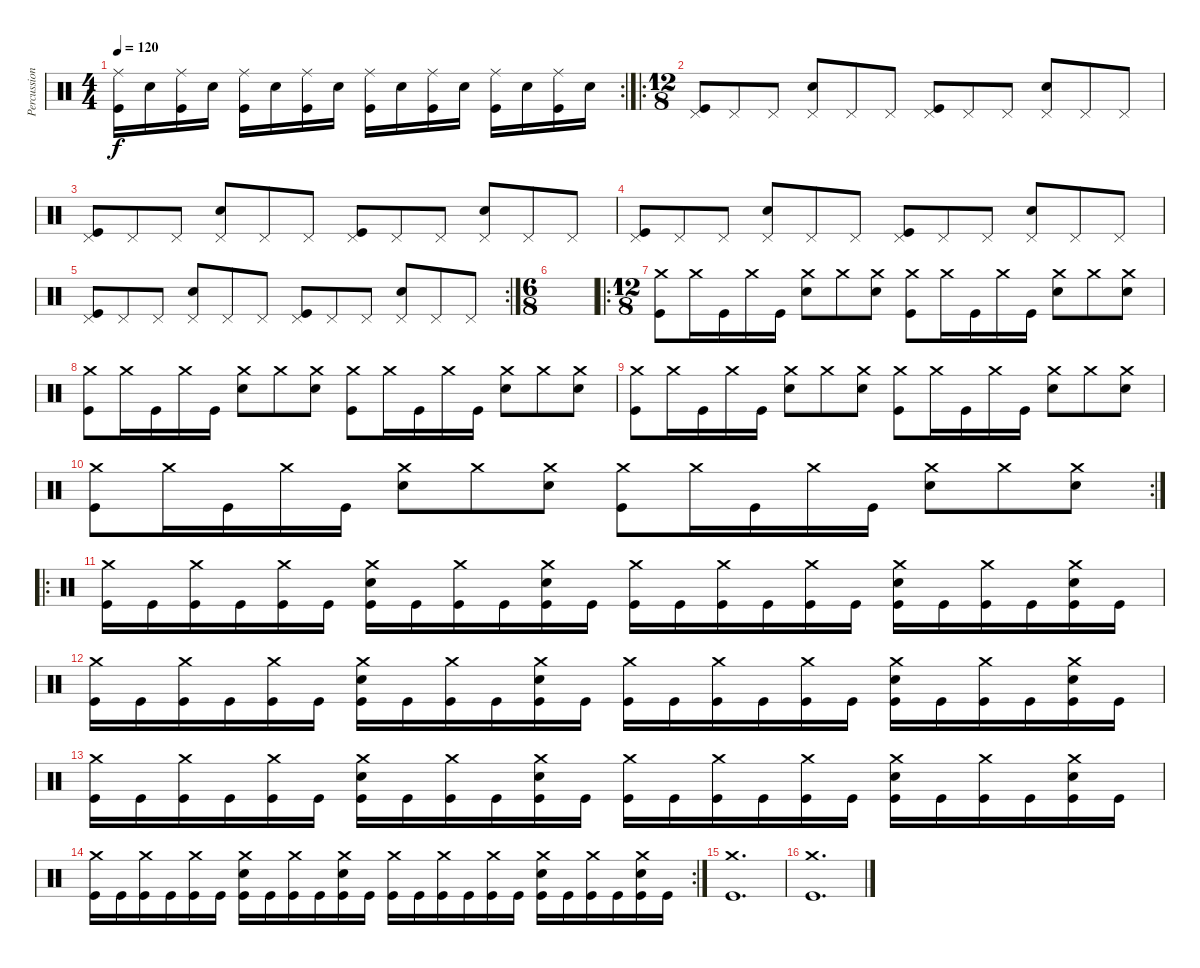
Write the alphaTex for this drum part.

\track ("Percussion" "Percussion") {instrument percussion}
\staff {score}
\articulation defaults
\rc 2
\ts (4 4)
\tempo 120
\clef neutral
\ks c
("Ride (middle)" "Kick (hit)").16{dy f} "Snare (hit) 2".16 ("Ride (middle)" "Kick (hit)").16 "Snare (hit) 2".16 ("Ride (middle)" "Kick (hit)").16 "Snare (hit) 2".16 ("Ride (middle)" "Kick (hit)").16 "Snare (hit) 2".16 ("Ride (middle)" "Kick (hit)").16 "Snare (hit) 2".16 ("Ride (middle)" "Kick (hit)").16 "Snare (hit) 2".16 ("Ride (middle)" "Kick (hit)").16 "Snare (hit) 2".16 ("Ride (middle)" "Kick (hit)").16 "Snare (hit) 2".16 |
\ro
\ts (12 8)
("Pedal Hi-Hat (hit)" "Kick (hit)").8 "Pedal Hi-Hat (hit)".8 "Pedal Hi-Hat (hit)".8 ("Pedal Hi-Hat (hit)" "Snare (hit) 2").8 "Pedal Hi-Hat (hit)".8 "Pedal Hi-Hat (hit)".8 ("Pedal Hi-Hat (hit)" "Kick (hit)").8 "Pedal Hi-Hat (hit)".8 "Pedal Hi-Hat (hit)".8 ("Pedal Hi-Hat (hit)" "Snare (hit) 2").8 "Pedal Hi-Hat (hit)".8 "Pedal Hi-Hat (hit)".8 |
("Pedal Hi-Hat (hit)" "Kick (hit)").8 "Pedal Hi-Hat (hit)".8 "Pedal Hi-Hat (hit)".8 ("Pedal Hi-Hat (hit)" "Snare (hit) 2").8 "Pedal Hi-Hat (hit)".8 "Pedal Hi-Hat (hit)".8 ("Pedal Hi-Hat (hit)" "Kick (hit)").8 "Pedal Hi-Hat (hit)".8 "Pedal Hi-Hat (hit)".8 ("Pedal Hi-Hat (hit)" "Snare (hit) 2").8 "Pedal Hi-Hat (hit)".8 "Pedal Hi-Hat (hit)".8 |
("Pedal Hi-Hat (hit)" "Kick (hit)").8 "Pedal Hi-Hat (hit)".8 "Pedal Hi-Hat (hit)".8 ("Pedal Hi-Hat (hit)" "Snare (hit) 2").8 "Pedal Hi-Hat (hit)".8 "Pedal Hi-Hat (hit)".8 ("Pedal Hi-Hat (hit)" "Kick (hit)").8 "Pedal Hi-Hat (hit)".8 "Pedal Hi-Hat (hit)".8 ("Pedal Hi-Hat (hit)" "Snare (hit) 2").8 "Pedal Hi-Hat (hit)".8 "Pedal Hi-Hat (hit)".8 |
\rc 2
("Pedal Hi-Hat (hit)" "Kick (hit)").8 "Pedal Hi-Hat (hit)".8 "Pedal Hi-Hat (hit)".8 ("Pedal Hi-Hat (hit)" "Snare (hit) 2").8 "Pedal Hi-Hat (hit)".8 "Pedal Hi-Hat (hit)".8 ("Pedal Hi-Hat (hit)" "Kick (hit)").8 "Pedal Hi-Hat (hit)".8 "Pedal Hi-Hat (hit)".8 ("Pedal Hi-Hat (hit)" "Snare (hit) 2").8 "Pedal Hi-Hat (hit)".8 "Pedal Hi-Hat (hit)".8 |
\ts (6 8)
|
\ro
\ts (12 8)
("Crash medium (hit)" "Kick (hit)").8 "Crash medium (hit)".16 "Kick (hit)".16 "Crash medium (hit)".16 "Kick (hit)".16 ("Crash medium (hit)" "Snare (hit) 2").8 "Crash medium (hit)".8 ("Crash medium (hit)" "Snare (hit) 2").8 ("Crash medium (hit)" "Kick (hit)").8 "Crash medium (hit)".16 "Kick (hit)".16 "Crash medium (hit)".16 "Kick (hit)".16 ("Crash medium (hit)" "Snare (hit) 2").8 "Crash medium (hit)".8 ("Crash medium (hit)" "Snare (hit) 2").8 |
("Crash medium (hit)" "Kick (hit)").8 "Crash medium (hit)".16 "Kick (hit)".16 "Crash medium (hit)".16 "Kick (hit)".16 ("Crash medium (hit)" "Snare (hit) 2").8 "Crash medium (hit)".8 ("Crash medium (hit)" "Snare (hit) 2").8 ("Crash medium (hit)" "Kick (hit)").8 "Crash medium (hit)".16 "Kick (hit)".16 "Crash medium (hit)".16 "Kick (hit)".16 ("Crash medium (hit)" "Snare (hit) 2").8 "Crash medium (hit)".8 ("Crash medium (hit)" "Snare (hit) 2").8 |
("Crash medium (hit)" "Kick (hit)").8 "Crash medium (hit)".16 "Kick (hit)".16 "Crash medium (hit)".16 "Kick (hit)".16 ("Crash medium (hit)" "Snare (hit) 2").8 "Crash medium (hit)".8 ("Crash medium (hit)" "Snare (hit) 2").8 ("Crash medium (hit)" "Kick (hit)").8 "Crash medium (hit)".16 "Kick (hit)".16 "Crash medium (hit)".16 "Kick (hit)".16 ("Crash medium (hit)" "Snare (hit) 2").8 "Crash medium (hit)".8 ("Crash medium (hit)" "Snare (hit) 2").8 |
\rc 2
("Crash medium (hit)" "Kick (hit)").8 "Crash medium (hit)".16 "Kick (hit)".16 "Crash medium (hit)".16 "Kick (hit)".16 ("Crash medium (hit)" "Snare (hit) 2").8 "Crash medium (hit)".8 ("Crash medium (hit)" "Snare (hit) 2").8 ("Crash medium (hit)" "Kick (hit)").8 "Crash medium (hit)".16 "Kick (hit)".16 "Crash medium (hit)".16 "Kick (hit)".16 ("Crash medium (hit)" "Snare (hit) 2").8 "Crash medium (hit)".8 ("Crash medium (hit)" "Snare (hit) 2").8 |
\ro
("Crash medium (hit)" "Kick (hit)").16 "Kick (hit)".16 ("Crash medium (hit)" "Kick (hit)").16 "Kick (hit)".16 ("Crash medium (hit)" "Kick (hit)").16 "Kick (hit)".16 ("Crash medium (hit)" "Snare (hit) 2" "Kick (hit)").16 "Kick (hit)".16 ("Crash medium (hit)" "Kick (hit)").16 "Kick (hit)".16 ("Crash medium (hit)" "Snare (hit) 2" "Kick (hit)").16 "Kick (hit)".16 ("Crash medium (hit)" "Kick (hit)").16 "Kick (hit)".16 ("Crash medium (hit)" "Kick (hit)").16 "Kick (hit)".16 ("Crash medium (hit)" "Kick (hit)").16 "Kick (hit)".16 ("Crash medium (hit)" "Snare (hit) 2" "Kick (hit)").16 "Kick (hit)".16 ("Crash medium (hit)" "Kick (hit)").16 "Kick (hit)".16 ("Crash medium (hit)" "Snare (hit) 2" "Kick (hit)").16 "Kick (hit)".16 |
("Crash medium (hit)" "Kick (hit)").16 "Kick (hit)".16 ("Crash medium (hit)" "Kick (hit)").16 "Kick (hit)".16 ("Crash medium (hit)" "Kick (hit)").16 "Kick (hit)".16 ("Crash medium (hit)" "Snare (hit) 2" "Kick (hit)").16 "Kick (hit)".16 ("Crash medium (hit)" "Kick (hit)").16 "Kick (hit)".16 ("Crash medium (hit)" "Snare (hit) 2" "Kick (hit)").16 "Kick (hit)".16 ("Crash medium (hit)" "Kick (hit)").16 "Kick (hit)".16 ("Crash medium (hit)" "Kick (hit)").16 "Kick (hit)".16 ("Crash medium (hit)" "Kick (hit)").16 "Kick (hit)".16 ("Crash medium (hit)" "Snare (hit) 2" "Kick (hit)").16 "Kick (hit)".16 ("Crash medium (hit)" "Kick (hit)").16 "Kick (hit)".16 ("Crash medium (hit)" "Snare (hit) 2" "Kick (hit)").16 "Kick (hit)".16 |
("Crash medium (hit)" "Kick (hit)").16 "Kick (hit)".16 ("Crash medium (hit)" "Kick (hit)").16 "Kick (hit)".16 ("Crash medium (hit)" "Kick (hit)").16 "Kick (hit)".16 ("Crash medium (hit)" "Snare (hit) 2" "Kick (hit)").16 "Kick (hit)".16 ("Crash medium (hit)" "Kick (hit)").16 "Kick (hit)".16 ("Crash medium (hit)" "Snare (hit) 2" "Kick (hit)").16 "Kick (hit)".16 ("Crash medium (hit)" "Kick (hit)").16 "Kick (hit)".16 ("Crash medium (hit)" "Kick (hit)").16 "Kick (hit)".16 ("Crash medium (hit)" "Kick (hit)").16 "Kick (hit)".16 ("Crash medium (hit)" "Snare (hit) 2" "Kick (hit)").16 "Kick (hit)".16 ("Crash medium (hit)" "Kick (hit)").16 "Kick (hit)".16 ("Crash medium (hit)" "Snare (hit) 2" "Kick (hit)").16 "Kick (hit)".16 |
\rc 2
("Crash medium (hit)" "Kick (hit)").16 "Kick (hit)".16 ("Crash medium (hit)" "Kick (hit)").16 "Kick (hit)".16 ("Crash medium (hit)" "Kick (hit)").16 "Kick (hit)".16 ("Crash medium (hit)" "Snare (hit) 2" "Kick (hit)").16 "Kick (hit)".16 ("Crash medium (hit)" "Kick (hit)").16 "Kick (hit)".16 ("Crash medium (hit)" "Snare (hit) 2" "Kick (hit)").16 "Kick (hit)".16 ("Crash medium (hit)" "Kick (hit)").16 "Kick (hit)".16 ("Crash medium (hit)" "Kick (hit)").16 "Kick (hit)".16 ("Crash medium (hit)" "Kick (hit)").16 "Kick (hit)".16 ("Crash medium (hit)" "Snare (hit) 2" "Kick (hit)").16 "Kick (hit)".16 ("Crash medium (hit)" "Kick (hit)").16 "Kick (hit)".16 ("Crash medium (hit)" "Snare (hit) 2" "Kick (hit)").16 "Kick (hit)".16 |
("Crash medium (hit)" "Kick (hit)").1{d} |
("Crash medium (hit)" "Kick (hit)").1{d}
